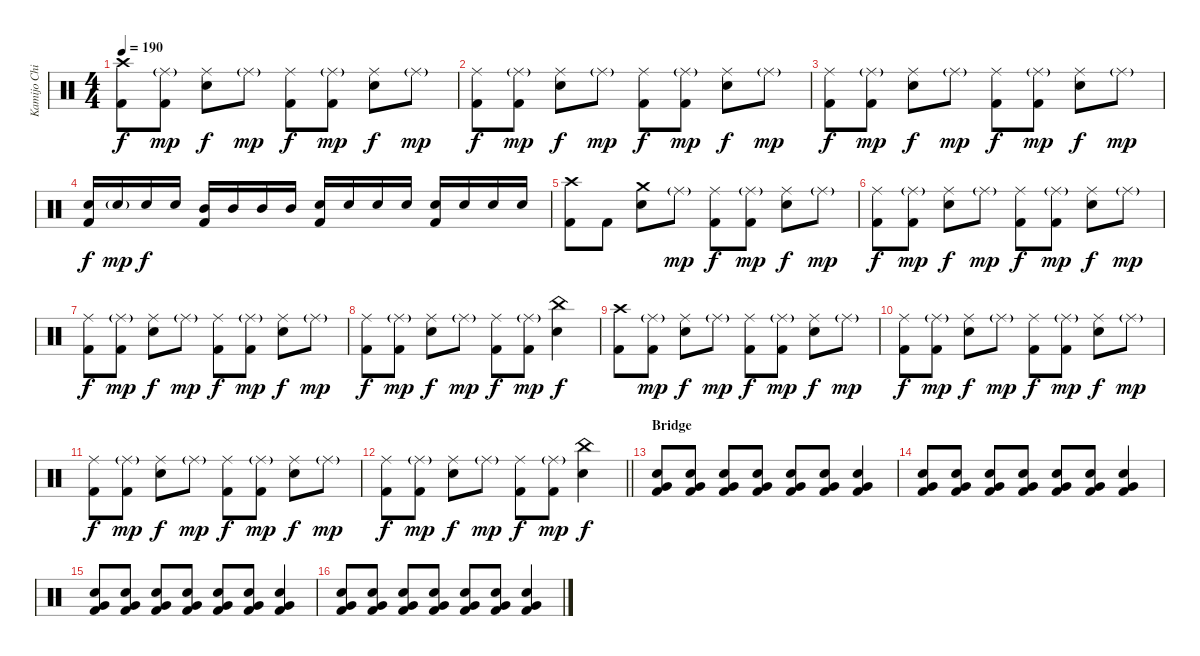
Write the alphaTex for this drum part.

\track ("Kamijo Chihiro" "Kamijo Chi") {instrument percussion}
\staff {score}
\articulation defaults
\ts (4 4)
\tempo 190
\clef neutral
\ks c
("Crash high (hit)" "Kick (hit) 2").8{dy f} ("Ride (middle)"{g} "Kick (hit) 2").8{dy mp} ("Ride (middle)" "Snare (hit) 2").8{dy f} "Ride (middle)"{g}.8{dy mp} ("Ride (middle)" "Kick (hit) 2").8{dy f} ("Ride (middle)"{g} "Kick (hit) 2").8{dy mp} ("Ride (middle)" "Snare (hit) 2").8{dy f} "Ride (middle)"{g}.8{dy mp} |
("Ride (middle)" "Kick (hit) 2").8{dy f} ("Ride (middle)"{g} "Kick (hit) 2").8{dy mp} ("Ride (middle)" "Snare (hit) 2").8{dy f} "Ride (middle)"{g}.8{dy mp} ("Ride (middle)" "Kick (hit) 2").8{dy f} ("Ride (middle)"{g} "Kick (hit) 2").8{dy mp} ("Ride (middle)" "Snare (hit) 2").8{dy f} "Ride (middle)"{g}.8{dy mp} |
("Ride (middle)" "Kick (hit) 2").8{dy f} ("Ride (middle)"{g} "Kick (hit) 2").8{dy mp} ("Ride (middle)" "Snare (hit) 2").8{dy f} "Ride (middle)"{g}.8{dy mp} ("Ride (middle)" "Kick (hit) 2").8{dy f} ("Ride (middle)"{g} "Kick (hit) 2").8{dy mp} ("Ride (middle)" "Snare (hit) 2").8{dy f} "Ride (middle)"{g}.8{dy mp} |
("Snare (hit) 2" "Kick (hit) 2").16{dy f} "Snare (hit) 2"{g}.16{dy mp} "Snare (hit) 2".16{dy f} "Snare (hit) 2".16 ("Mid Tom (hit)" "Kick (hit) 2").16 "Mid Tom (hit)".16 "Mid Tom (hit)".16 "Mid Tom (hit)".16 ("Snare (hit) 2" "Kick (hit) 2").16 "Snare (hit) 2".16 "Snare (hit) 2".16 "Snare (hit) 2".16 ("Snare (hit) 2" "Kick (hit) 2").16 "Snare (hit) 2".16 "Snare (hit) 2".16 "Snare (hit) 2".16 |
("Crash high (hit)" "Kick (hit) 2").8 "Kick (hit) 2".8 ("Crash medium (hit)" "Snare (hit) 2").8 "Ride (middle)"{g}.8{dy mp} ("Ride (middle)" "Kick (hit) 2").8{dy f} ("Ride (middle)"{g} "Kick (hit) 2").8{dy mp} ("Ride (middle)" "Snare (hit) 2").8{dy f} "Ride (middle)"{g}.8{dy mp} |
("Ride (middle)" "Kick (hit) 2").8{dy f} ("Ride (middle)"{g} "Kick (hit) 2").8{dy mp} ("Ride (middle)" "Snare (hit) 2").8{dy f} "Ride (middle)"{g}.8{dy mp} ("Ride (middle)" "Kick (hit) 2").8{dy f} ("Ride (middle)"{g} "Kick (hit) 2").8{dy mp} ("Ride (middle)" "Snare (hit) 2").8{dy f} "Ride (middle)"{g}.8{dy mp} |
("Ride (middle)" "Kick (hit) 2").8{dy f} ("Ride (middle)"{g} "Kick (hit) 2").8{dy mp} ("Ride (middle)" "Snare (hit) 2").8{dy f} "Ride (middle)"{g}.8{dy mp} ("Ride (middle)" "Kick (hit) 2").8{dy f} ("Ride (middle)"{g} "Kick (hit) 2").8{dy mp} ("Ride (middle)" "Snare (hit) 2").8{dy f} "Ride (middle)"{g}.8{dy mp} |
("Ride (middle)" "Kick (hit) 2").8{dy f} ("Ride (middle)"{g} "Kick (hit) 2").8{dy mp} ("Ride (middle)" "Snare (hit) 2").8{dy f} "Ride (middle)"{g}.8{dy mp} ("Ride (middle)" "Kick (hit) 2").8{dy f} ("Ride (middle)"{g} "Kick (hit) 2").8{dy mp} ("China (hit)" "Snare (hit) 2").4{dy f} |
("Crash high (hit)" "Kick (hit) 2").8 ("Ride (middle)"{g} "Kick (hit) 2").8{dy mp} ("Ride (middle)" "Snare (hit) 2").8{dy f} "Ride (middle)"{g}.8{dy mp} ("Ride (middle)" "Kick (hit) 2").8{dy f} ("Ride (middle)"{g} "Kick (hit) 2").8{dy mp} ("Ride (middle)" "Snare (hit) 2").8{dy f} "Ride (middle)"{g}.8{dy mp} |
("Ride (middle)" "Kick (hit) 2").8{dy f} ("Ride (middle)"{g} "Kick (hit) 2").8{dy mp} ("Ride (middle)" "Snare (hit) 2").8{dy f} "Ride (middle)"{g}.8{dy mp} ("Ride (middle)" "Kick (hit) 2").8{dy f} ("Ride (middle)"{g} "Kick (hit) 2").8{dy mp} ("Ride (middle)" "Snare (hit) 2").8{dy f} "Ride (middle)"{g}.8{dy mp} |
("Ride (middle)" "Kick (hit) 2").8{dy f} ("Ride (middle)"{g} "Kick (hit) 2").8{dy mp} ("Ride (middle)" "Snare (hit) 2").8{dy f} "Ride (middle)"{g}.8{dy mp} ("Ride (middle)" "Kick (hit) 2").8{dy f} ("Ride (middle)"{g} "Kick (hit) 2").8{dy mp} ("Ride (middle)" "Snare (hit) 2").8{dy f} "Ride (middle)"{g}.8{dy mp} |
\barLineRight lightlight
("Ride (middle)" "Kick (hit) 2").8{dy f} ("Ride (middle)"{g} "Kick (hit) 2").8{dy mp} ("Ride (middle)" "Snare (hit) 2").8{dy f} "Ride (middle)"{g}.8{dy mp} ("Ride (middle)" "Kick (hit) 2").8{dy f} ("Ride (middle)"{g} "Kick (hit) 2").8{dy mp} ("China (hit)" "Snare (hit) 2").4{dy f} |
\section ("" "Bridge")
("Snare (hit) 2" "Very Low Tom (hit)" "Kick (hit) 2").8 ("Snare (hit) 2" "Very Low Tom (hit)" "Kick (hit) 2").8 ("Snare (hit) 2" "Very Low Tom (hit)" "Kick (hit) 2").8 ("Snare (hit) 2" "Very Low Tom (hit)" "Kick (hit) 2").8 ("Snare (hit) 2" "Very Low Tom (hit)" "Kick (hit) 2").8 ("Snare (hit) 2" "Very Low Tom (hit)" "Kick (hit) 2").8 ("Snare (hit) 2" "Very Low Tom (hit)" "Kick (hit) 2").4 |
("Snare (hit) 2" "Very Low Tom (hit)" "Kick (hit) 2").8 ("Snare (hit) 2" "Very Low Tom (hit)" "Kick (hit) 2").8 ("Snare (hit) 2" "Very Low Tom (hit)" "Kick (hit) 2").8 ("Snare (hit) 2" "Very Low Tom (hit)" "Kick (hit) 2").8 ("Snare (hit) 2" "Very Low Tom (hit)" "Kick (hit) 2").8 ("Snare (hit) 2" "Very Low Tom (hit)" "Kick (hit) 2").8 ("Snare (hit) 2" "Very Low Tom (hit)" "Kick (hit) 2").4 |
("Snare (hit) 2" "Very Low Tom (hit)" "Kick (hit) 2").8 ("Snare (hit) 2" "Very Low Tom (hit)" "Kick (hit) 2").8 ("Snare (hit) 2" "Very Low Tom (hit)" "Kick (hit) 2").8 ("Snare (hit) 2" "Very Low Tom (hit)" "Kick (hit) 2").8 ("Snare (hit) 2" "Very Low Tom (hit)" "Kick (hit) 2").8 ("Snare (hit) 2" "Very Low Tom (hit)" "Kick (hit) 2").8 ("Snare (hit) 2" "Very Low Tom (hit)" "Kick (hit) 2").4 |
("Snare (hit) 2" "Very Low Tom (hit)" "Kick (hit) 2").8 ("Snare (hit) 2" "Very Low Tom (hit)" "Kick (hit) 2").8 ("Snare (hit) 2" "Very Low Tom (hit)" "Kick (hit) 2").8 ("Snare (hit) 2" "Very Low Tom (hit)" "Kick (hit) 2").8 ("Snare (hit) 2" "Very Low Tom (hit)" "Kick (hit) 2").8 ("Snare (hit) 2" "Very Low Tom (hit)" "Kick (hit) 2").8 ("Snare (hit) 2" "Very Low Tom (hit)" "Kick (hit) 2").4
